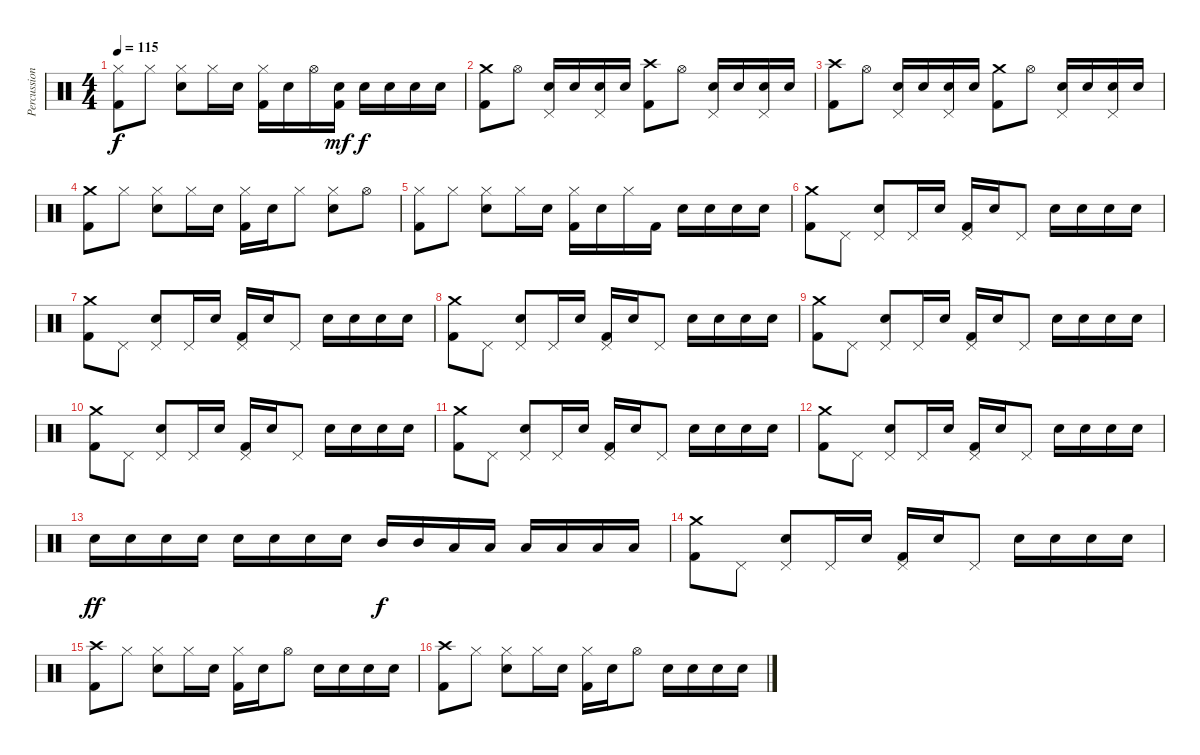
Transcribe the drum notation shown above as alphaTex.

\track ("Percussion" "Percussion") {instrument percussion}
\staff {score}
\articulation defaults
\ts (4 4)
\tempo 115
\clef neutral
\ks c
("Hi-Hat (closed)" "Kick (hit) 2").8{dy f} "Hi-Hat (closed)".8 ("Hi-Hat (closed)" "Electric Snare (hit)").8 "Hi-Hat (closed)".16 "Electric Snare (hit)".16 ("Hi-Hat (closed)" "Kick (hit) 2").16 "Electric Snare (hit)".16 "Hi-Hat (open)".16 ("Electric Snare (hit)" "Kick (hit) 2").16{dy mf} "Electric Snare (hit)".16{dy f} "Electric Snare (hit)".16 "Electric Snare (hit)".16 "Electric Snare (hit)".16 |
("Crash medium (hit)" "Kick (hit) 2").8 "Hi-Hat (open)".8 ("Pedal Hi-Hat (hit)" "Electric Snare (hit)").16 "Electric Snare (hit)".16 ("Pedal Hi-Hat (hit)" "Electric Snare (hit)").16 "Electric Snare (hit)".16 ("Crash high (hit)" "Kick (hit) 2").8 "Hi-Hat (open)".8 ("Pedal Hi-Hat (hit)" "Electric Snare (hit)").16 "Electric Snare (hit)".16 ("Pedal Hi-Hat (hit)" "Electric Snare (hit)").16 "Electric Snare (hit)".16 |
("Crash high (hit)" "Kick (hit) 2").8 "Hi-Hat (open)".8 ("Pedal Hi-Hat (hit)" "Electric Snare (hit)").16 "Electric Snare (hit)".16 ("Pedal Hi-Hat (hit)" "Electric Snare (hit)").16 "Electric Snare (hit)".16 ("Crash medium (hit)" "Kick (hit) 2").8 "Hi-Hat (open)".8 ("Pedal Hi-Hat (hit)" "Electric Snare (hit)").16 "Electric Snare (hit)".16 ("Pedal Hi-Hat (hit)" "Electric Snare (hit)").16 "Electric Snare (hit)".16 |
("Crash medium (hit)" "Kick (hit) 2").8 "Hi-Hat (closed)".8 ("Hi-Hat (closed)" "Electric Snare (hit)").8 "Hi-Hat (closed)".16 "Electric Snare (hit)".16 ("Hi-Hat (closed)" "Kick (hit) 2").16 "Electric Snare (hit)".16 "Hi-Hat (closed)".8 ("Hi-Hat (closed)" "Electric Snare (hit)").8 "Hi-Hat (open)".8 |
("Hi-Hat (closed)" "Kick (hit) 2").8 "Hi-Hat (closed)".8 ("Hi-Hat (closed)" "Electric Snare (hit)").8 "Hi-Hat (closed)".16 "Electric Snare (hit)".16 ("Hi-Hat (closed)" "Kick (hit) 2").16 "Electric Snare (hit)".16 "Hi-Hat (closed)".16 "Kick (hit) 2".16 "Electric Snare (hit)".16 "Electric Snare (hit)".16 "Electric Snare (hit)".16 "Electric Snare (hit)".16 |
("Crash medium (hit)" "Kick (hit) 2").8 "Pedal Hi-Hat (hit)".8 ("Pedal Hi-Hat (hit)" "Electric Snare (hit)").8 "Pedal Hi-Hat (hit)".16 "Electric Snare (hit)".16 ("Pedal Hi-Hat (hit)" "Kick (hit) 2").16 "Electric Snare (hit)".16 "Pedal Hi-Hat (hit)".8 "Electric Snare (hit)".16 "Electric Snare (hit)".16 "Electric Snare (hit)".16 "Electric Snare (hit)".16 |
("Crash medium (hit)" "Kick (hit) 2").8 "Pedal Hi-Hat (hit)".8 ("Pedal Hi-Hat (hit)" "Electric Snare (hit)").8 "Pedal Hi-Hat (hit)".16 "Electric Snare (hit)".16 ("Pedal Hi-Hat (hit)" "Kick (hit) 2").16 "Electric Snare (hit)".16 "Pedal Hi-Hat (hit)".8 "Electric Snare (hit)".16 "Electric Snare (hit)".16 "Electric Snare (hit)".16 "Electric Snare (hit)".16 |
("Crash medium (hit)" "Kick (hit) 2").8 "Pedal Hi-Hat (hit)".8 ("Pedal Hi-Hat (hit)" "Electric Snare (hit)").8 "Pedal Hi-Hat (hit)".16 "Electric Snare (hit)".16 ("Pedal Hi-Hat (hit)" "Kick (hit) 2").16 "Electric Snare (hit)".16 "Pedal Hi-Hat (hit)".8 "Electric Snare (hit)".16 "Electric Snare (hit)".16 "Electric Snare (hit)".16 "Electric Snare (hit)".16 |
("Crash medium (hit)" "Kick (hit) 2").8 "Pedal Hi-Hat (hit)".8 ("Pedal Hi-Hat (hit)" "Electric Snare (hit)").8 "Pedal Hi-Hat (hit)".16 "Electric Snare (hit)".16 ("Pedal Hi-Hat (hit)" "Kick (hit) 2").16 "Electric Snare (hit)".16 "Pedal Hi-Hat (hit)".8 "Electric Snare (hit)".16 "Electric Snare (hit)".16 "Electric Snare (hit)".16 "Electric Snare (hit)".16 |
("Crash medium (hit)" "Kick (hit) 2").8 "Pedal Hi-Hat (hit)".8 ("Pedal Hi-Hat (hit)" "Electric Snare (hit)").8 "Pedal Hi-Hat (hit)".16 "Electric Snare (hit)".16 ("Pedal Hi-Hat (hit)" "Kick (hit) 2").16 "Electric Snare (hit)".16 "Pedal Hi-Hat (hit)".8 "Electric Snare (hit)".16 "Electric Snare (hit)".16 "Electric Snare (hit)".16 "Electric Snare (hit)".16 |
("Crash medium (hit)" "Kick (hit) 2").8 "Pedal Hi-Hat (hit)".8 ("Pedal Hi-Hat (hit)" "Electric Snare (hit)").8 "Pedal Hi-Hat (hit)".16 "Electric Snare (hit)".16 ("Pedal Hi-Hat (hit)" "Kick (hit) 2").16 "Electric Snare (hit)".16 "Pedal Hi-Hat (hit)".8 "Electric Snare (hit)".16 "Electric Snare (hit)".16 "Electric Snare (hit)".16 "Electric Snare (hit)".16 |
("Crash medium (hit)" "Kick (hit) 2").8 "Pedal Hi-Hat (hit)".8 ("Pedal Hi-Hat (hit)" "Electric Snare (hit)").8 "Pedal Hi-Hat (hit)".16 "Electric Snare (hit)".16 ("Pedal Hi-Hat (hit)" "Kick (hit) 2").16 "Electric Snare (hit)".16 "Pedal Hi-Hat (hit)".8 "Electric Snare (hit)".16 "Electric Snare (hit)".16 "Electric Snare (hit)".16 "Electric Snare (hit)".16 |
"Electric Snare (hit)".16{dy ff} "Electric Snare (hit)".16 "Electric Snare (hit)".16 "Electric Snare (hit)".16 "Electric Snare (hit)".16 "Electric Snare (hit)".16 "Electric Snare (hit)".16 "Electric Snare (hit)".16 "Mid Tom (hit)".16{dy f} "Mid Tom (hit)".16 "Low Tom (hit)".16 "Low Tom (hit)".16 "Low Floor Tom (hit)".16 "Low Floor Tom (hit)".16 "Low Floor Tom (hit)".16 "Low Floor Tom (hit)".16 |
("Crash medium (hit)" "Kick (hit) 2").8 "Pedal Hi-Hat (hit)".8 ("Pedal Hi-Hat (hit)" "Electric Snare (hit)").8 "Pedal Hi-Hat (hit)".16 "Electric Snare (hit)".16 ("Pedal Hi-Hat (hit)" "Kick (hit) 2").16 "Electric Snare (hit)".16 "Pedal Hi-Hat (hit)".8 "Electric Snare (hit)".16 "Electric Snare (hit)".16 "Electric Snare (hit)".16 "Electric Snare (hit)".16 |
("Crash high (hit)" "Kick (hit) 2").8 "Hi-Hat (closed)".8 ("Hi-Hat (closed)" "Electric Snare (hit)").8 "Hi-Hat (closed)".16 "Electric Snare (hit)".16 ("Hi-Hat (closed)" "Kick (hit) 2").16 "Electric Snare (hit)".16 "Hi-Hat (open)".8 "Electric Snare (hit)".16 "Electric Snare (hit)".16 "Electric Snare (hit)".16 "Electric Snare (hit)".16 |
("Crash high (hit)" "Kick (hit) 2").8 "Hi-Hat (closed)".8 ("Hi-Hat (closed)" "Electric Snare (hit)").8 "Hi-Hat (closed)".16 "Electric Snare (hit)".16 ("Hi-Hat (closed)" "Kick (hit) 2").16 "Electric Snare (hit)".16 "Hi-Hat (open)".8 "Electric Snare (hit)".16 "Electric Snare (hit)".16 "Electric Snare (hit)".16 "Electric Snare (hit)".16
